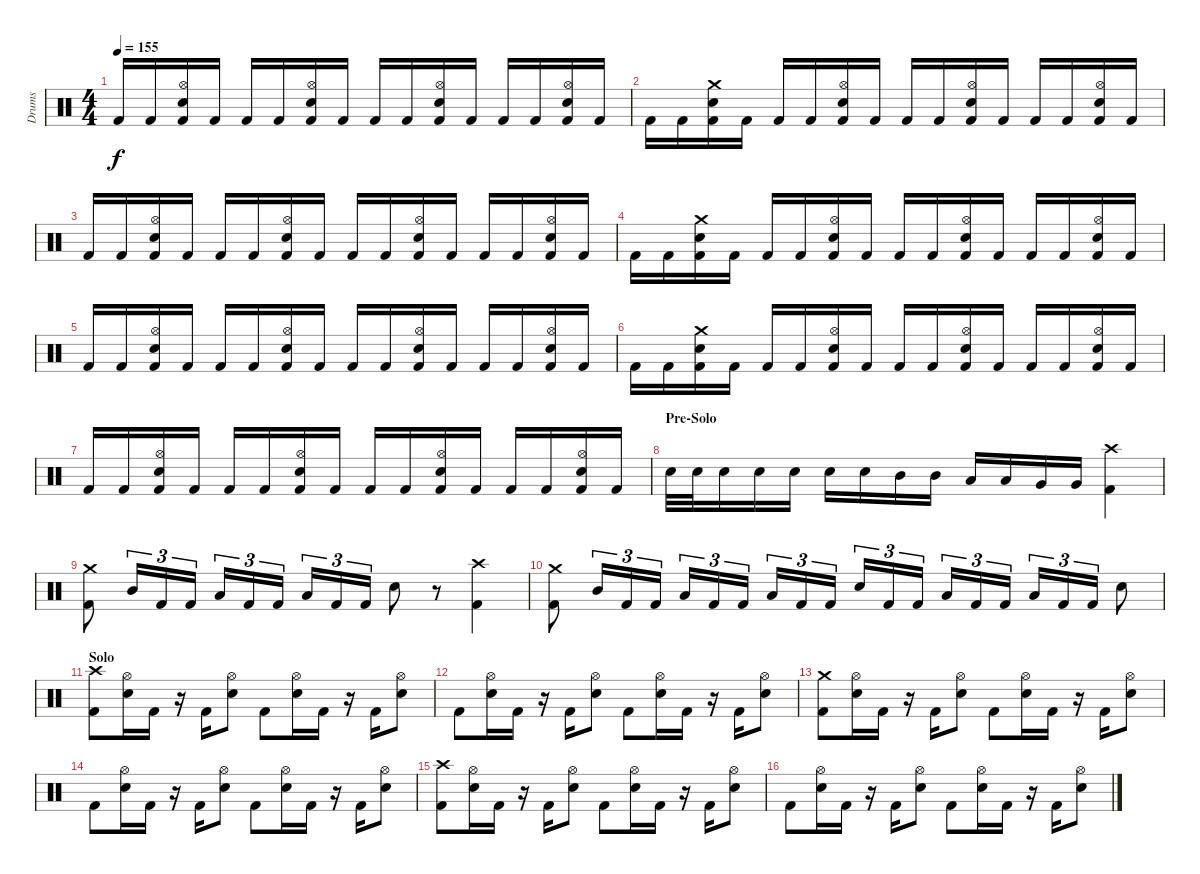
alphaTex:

\track ("Drums" "Drums") {instrument percussion}
\staff {score}
\articulation defaults
\ts (4 4)
\tempo 155
\clef neutral
\ks c "Kick (hit) 2".16{dy f} "Kick (hit) 2".16
("Hi-Hat (open)" "Snare (hit) 2" "Kick (hit) 2").16 "Kick (hit) 2".16 "Kick (hit) 2".16 "Kick (hit) 2".16 ("Hi-Hat (open)" "Snare (hit) 2" "Kick (hit) 2").16 "Kick (hit) 2".16 "Kick (hit) 2".16 "Kick (hit) 2".16 ("Hi-Hat (open)" "Snare (hit) 2" "Kick (hit) 2").16 "Kick (hit) 2".16 "Kick (hit) 2".16 "Kick (hit) 2".16 ("Hi-Hat (open)" "Snare (hit) 2" "Kick (hit) 2").16 "Kick (hit) 2".16 |
"Kick (hit) 2".16 "Kick (hit) 2".16 ("Crash medium (hit)" "Snare (hit) 2" "Kick (hit) 2").16 "Kick (hit) 2".16 "Kick (hit) 2".16 "Kick (hit) 2".16 ("Hi-Hat (open)" "Snare (hit) 2" "Kick (hit) 2").16 "Kick (hit) 2".16 "Kick (hit) 2".16 "Kick (hit) 2".16 ("Hi-Hat (open)" "Snare (hit) 2" "Kick (hit) 2").16 "Kick (hit) 2".16 "Kick (hit) 2".16 "Kick (hit) 2".16 ("Hi-Hat (open)" "Snare (hit) 2" "Kick (hit) 2").16 "Kick (hit) 2".16 |
"Kick (hit) 2".16 "Kick (hit) 2".16 ("Hi-Hat (open)" "Snare (hit) 2" "Kick (hit) 2").16 "Kick (hit) 2".16 "Kick (hit) 2".16 "Kick (hit) 2".16 ("Hi-Hat (open)" "Snare (hit) 2" "Kick (hit) 2").16 "Kick (hit) 2".16 "Kick (hit) 2".16 "Kick (hit) 2".16 ("Hi-Hat (open)" "Snare (hit) 2" "Kick (hit) 2").16 "Kick (hit) 2".16 "Kick (hit) 2".16 "Kick (hit) 2".16 ("Hi-Hat (open)" "Snare (hit) 2" "Kick (hit) 2").16 "Kick (hit) 2".16 |
"Kick (hit) 2".16 "Kick (hit) 2".16 ("Crash medium (hit)" "Snare (hit) 2" "Kick (hit) 2").16 "Kick (hit) 2".16 "Kick (hit) 2".16 "Kick (hit) 2".16 ("Hi-Hat (open)" "Snare (hit) 2" "Kick (hit) 2").16 "Kick (hit) 2".16 "Kick (hit) 2".16 "Kick (hit) 2".16 ("Hi-Hat (open)" "Snare (hit) 2" "Kick (hit) 2").16 "Kick (hit) 2".16 "Kick (hit) 2".16 "Kick (hit) 2".16 ("Hi-Hat (open)" "Snare (hit) 2" "Kick (hit) 2").16 "Kick (hit) 2".16 |
"Kick (hit) 2".16 "Kick (hit) 2".16 ("Hi-Hat (open)" "Snare (hit) 2" "Kick (hit) 2").16 "Kick (hit) 2".16 "Kick (hit) 2".16 "Kick (hit) 2".16 ("Hi-Hat (open)" "Snare (hit) 2" "Kick (hit) 2").16 "Kick (hit) 2".16 "Kick (hit) 2".16 "Kick (hit) 2".16 ("Hi-Hat (open)" "Snare (hit) 2" "Kick (hit) 2").16 "Kick (hit) 2".16 "Kick (hit) 2".16 "Kick (hit) 2".16 ("Hi-Hat (open)" "Snare (hit) 2" "Kick (hit) 2").16 "Kick (hit) 2".16 |
"Kick (hit) 2".16 "Kick (hit) 2".16 ("Crash medium (hit)" "Snare (hit) 2" "Kick (hit) 2").16 "Kick (hit) 2".16 "Kick (hit) 2".16 "Kick (hit) 2".16 ("Hi-Hat (open)" "Snare (hit) 2" "Kick (hit) 2").16 "Kick (hit) 2".16 "Kick (hit) 2".16 "Kick (hit) 2".16 ("Hi-Hat (open)" "Snare (hit) 2" "Kick (hit) 2").16 "Kick (hit) 2".16 "Kick (hit) 2".16 "Kick (hit) 2".16 ("Hi-Hat (open)" "Snare (hit) 2" "Kick (hit) 2").16 "Kick (hit) 2".16 |
"Kick (hit) 2".16 "Kick (hit) 2".16 ("Hi-Hat (open)" "Snare (hit) 2" "Kick (hit) 2").16 "Kick (hit) 2".16 "Kick (hit) 2".16 "Kick (hit) 2".16 ("Hi-Hat (open)" "Snare (hit) 2" "Kick (hit) 2").16 "Kick (hit) 2".16 "Kick (hit) 2".16 "Kick (hit) 2".16 ("Hi-Hat (open)" "Snare (hit) 2" "Kick (hit) 2").16 "Kick (hit) 2".16 "Kick (hit) 2".16 "Kick (hit) 2".16 ("Hi-Hat (open)" "Snare (hit) 2" "Kick (hit) 2").16 "Kick (hit) 2".16 |
\section ("" "Pre-Solo")
"Snare (hit) 2".32 "Snare (hit) 2".32 "Snare (hit) 2".16 "Snare (hit) 2".16 "Snare (hit) 2".16 "Snare (hit) 2".16 "Snare (hit) 2".16 "Mid Tom (hit)".16 "Mid Tom (hit)".16 "Low Tom (hit)".16 "Low Tom (hit)".16 "Very Low Tom (hit)".16 "Very Low Tom (hit)".16 ("Crash high (hit)" "Kick (hit) 2").4 |
("Crash medium (hit)" "Kick (hit) 2").8 "Mid Tom (hit)".16{tu (3 2)} "Kick (hit) 2".16{tu (3 2)} "Kick (hit) 2".16{tu (3 2)} "Low Tom (hit)".16{tu (3 2)} "Kick (hit) 2".16{tu (3 2)} "Kick (hit) 2".16{tu (3 2)} "Low Tom (hit)".16{tu (3 2)} "Kick (hit) 2".16{tu (3 2)} "Kick (hit) 2".16{tu (3 2)} "Snare (hit) 2".8 r.8 ("Crash high (hit)" "Kick (hit) 2").4 |
("Crash medium (hit)" "Kick (hit) 2").8 "Mid Tom (hit)".16{tu (3 2)} "Kick (hit) 2".16{tu (3 2)} "Kick (hit) 2".16{tu (3 2)} "Low Tom (hit)".16{tu (3 2)} "Kick (hit) 2".16{tu (3 2)} "Kick (hit) 2".16{tu (3 2)} "Low Tom (hit)".16{tu (3 2)} "Kick (hit) 2".16{tu (3 2)} "Kick (hit) 2".16{tu (3 2)} "Snare (hit) 2".16{tu (3 2)} "Kick (hit) 2".16{tu (3 2)} "Kick (hit) 2".16{tu (3 2)} "Low Tom (hit)".16{tu (3 2)} "Kick (hit) 2".16{tu (3 2)} "Kick (hit) 2".16{tu (3 2)} "Low Tom (hit)".16{tu (3 2)} "Kick (hit) 2".16{tu (3 2)} "Kick (hit) 2".16{tu (3 2)} "Snare (hit) 2".8 |
\section ("" "Solo")
("Crash high (hit)" "Kick (hit) 2").8 ("Hi-Hat (open)" "Snare (hit) 2").16 "Kick (hit) 2".16 r.16 "Kick (hit) 2".16 ("Hi-Hat (open)" "Snare (hit) 2").8 "Kick (hit) 2".8 ("Hi-Hat (open)" "Snare (hit) 2").16 "Kick (hit) 2".16 r.16 "Kick (hit) 2".16 ("Hi-Hat (open)" "Snare (hit) 2").8 |
"Kick (hit) 2".8 ("Hi-Hat (open)" "Snare (hit) 2").16 "Kick (hit) 2".16 r.16 "Kick (hit) 2".16 ("Hi-Hat (open)" "Snare (hit) 2").8 "Kick (hit) 2".8 ("Hi-Hat (open)" "Snare (hit) 2").16 "Kick (hit) 2".16 r.16 "Kick (hit) 2".16 ("Hi-Hat (open)" "Snare (hit) 2").8 |
("Crash medium (hit)" "Kick (hit) 2").8 ("Hi-Hat (open)" "Snare (hit) 2").16 "Kick (hit) 2".16 r.16 "Kick (hit) 2".16 ("Hi-Hat (open)" "Snare (hit) 2").8 "Kick (hit) 2".8 ("Hi-Hat (open)" "Snare (hit) 2").16 "Kick (hit) 2".16 r.16 "Kick (hit) 2".16 ("Hi-Hat (open)" "Snare (hit) 2").8 |
"Kick (hit) 2".8 ("Hi-Hat (open)" "Snare (hit) 2").16 "Kick (hit) 2".16 r.16 "Kick (hit) 2".16 ("Hi-Hat (open)" "Snare (hit) 2").8 "Kick (hit) 2".8 ("Hi-Hat (open)" "Snare (hit) 2").16 "Kick (hit) 2".16 r.16 "Kick (hit) 2".16 ("Hi-Hat (open)" "Snare (hit) 2").8 |
("Crash high (hit)" "Kick (hit) 2").8 ("Hi-Hat (open)" "Snare (hit) 2").16 "Kick (hit) 2".16 r.16 "Kick (hit) 2".16 ("Hi-Hat (open)" "Snare (hit) 2").8 "Kick (hit) 2".8 ("Hi-Hat (open)" "Snare (hit) 2").16 "Kick (hit) 2".16 r.16 "Kick (hit) 2".16 ("Hi-Hat (open)" "Snare (hit) 2").8 |
"Kick (hit) 2".8 ("Hi-Hat (open)" "Snare (hit) 2").16 "Kick (hit) 2".16 r.16 "Kick (hit) 2".16 ("Hi-Hat (open)" "Snare (hit) 2").8 "Kick (hit) 2".8 ("Hi-Hat (open)" "Snare (hit) 2").16 "Kick (hit) 2".16 r.16 "Kick (hit) 2".16 ("Hi-Hat (open)" "Snare (hit) 2").8
